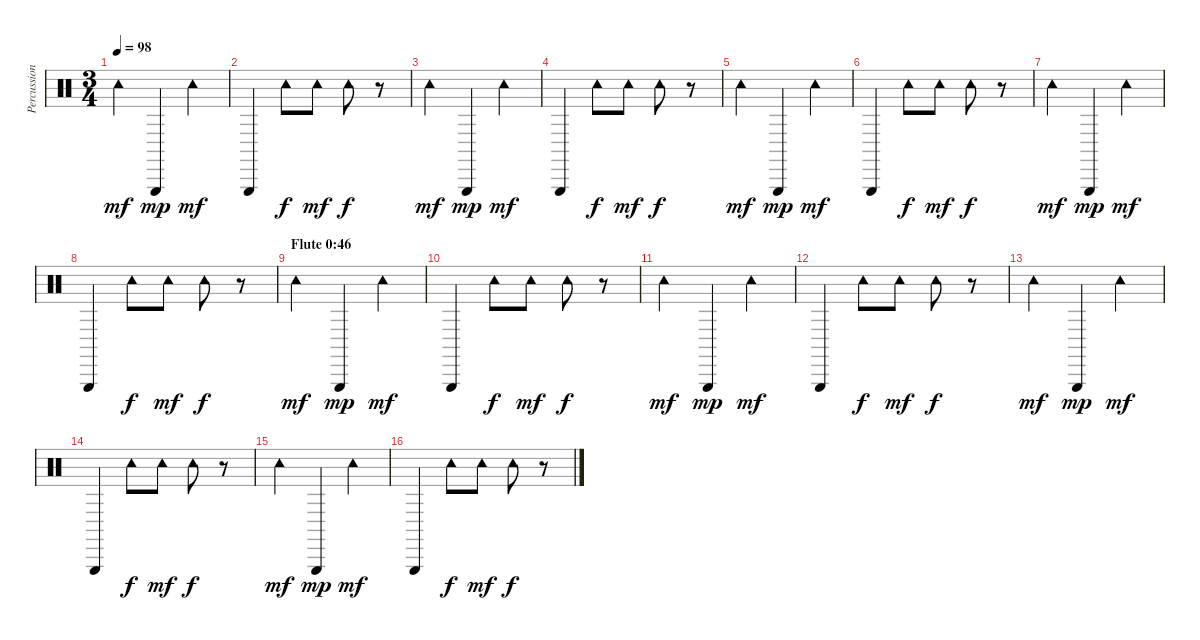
\track ("Percussion" "Percussion") {instrument percussion}
\staff {score}
\articulation defaults
\ts (3 4)
\tempo 98
\clef neutral
\ks c "Tambourine (hit)".4{dy mf} "Triangle (hit)".4{dy mp} "Tambourine (hit)".4{dy mf}
|
"Triangle (hit)".4 "Tambourine (hit)".8{dy f} "Tambourine (hit)".8{dy mf} "Tambourine (hit)".8{dy f} r.8 |
"Tambourine (hit)".4{dy mf} "Triangle (hit)".4{dy mp} "Tambourine (hit)".4{dy mf} |
"Triangle (hit)".4 "Tambourine (hit)".8{dy f} "Tambourine (hit)".8{dy mf} "Tambourine (hit)".8{dy f} r.8 |
"Tambourine (hit)".4{dy mf} "Triangle (hit)".4{dy mp} "Tambourine (hit)".4{dy mf} |
"Triangle (hit)".4 "Tambourine (hit)".8{dy f} "Tambourine (hit)".8{dy mf} "Tambourine (hit)".8{dy f} r.8 |
"Tambourine (hit)".4{dy mf} "Triangle (hit)".4{dy mp} "Tambourine (hit)".4{dy mf} |
"Triangle (hit)".4 "Tambourine (hit)".8{dy f} "Tambourine (hit)".8{dy mf} "Tambourine (hit)".8{dy f} r.8 |
\section ("" "Flute 0:46")
"Tambourine (hit)".4{dy mf} "Triangle (hit)".4{dy mp} "Tambourine (hit)".4{dy mf} |
"Triangle (hit)".4 "Tambourine (hit)".8{dy f} "Tambourine (hit)".8{dy mf} "Tambourine (hit)".8{dy f} r.8 |
"Tambourine (hit)".4{dy mf} "Triangle (hit)".4{dy mp} "Tambourine (hit)".4{dy mf} |
"Triangle (hit)".4 "Tambourine (hit)".8{dy f} "Tambourine (hit)".8{dy mf} "Tambourine (hit)".8{dy f} r.8 |
"Tambourine (hit)".4{dy mf} "Triangle (hit)".4{dy mp} "Tambourine (hit)".4{dy mf} |
"Triangle (hit)".4 "Tambourine (hit)".8{dy f} "Tambourine (hit)".8{dy mf} "Tambourine (hit)".8{dy f} r.8 |
"Tambourine (hit)".4{dy mf} "Triangle (hit)".4{dy mp} "Tambourine (hit)".4{dy mf} |
"Triangle (hit)".4 "Tambourine (hit)".8{dy f} "Tambourine (hit)".8{dy mf} "Tambourine (hit)".8{dy f} r.8
